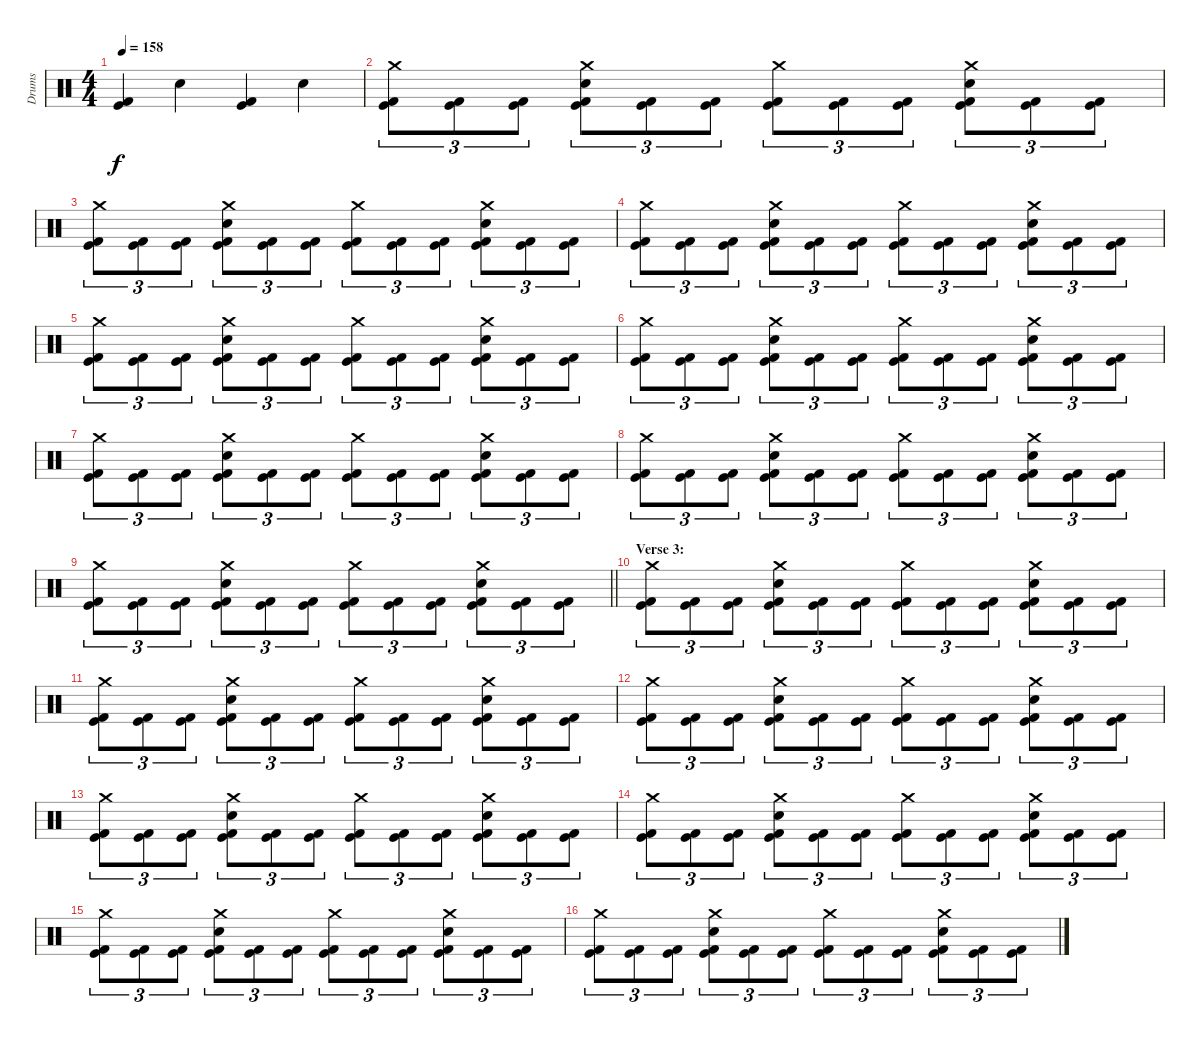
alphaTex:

\track ("Drums" "Drums") {instrument percussion}
\staff {score}
\articulation defaults
\ts (4 4)
\tempo 158
\clef neutral
\ks c
("Kick (hit)" "Kick (hit) 2").4{dy f} "Snare (hit) 2".4 ("Kick (hit)" "Kick (hit) 2").4 "Snare (hit) 2".4 |
("Crash medium (hit)" "Kick (hit)" "Kick (hit) 2").8{tu (3 2)} ("Kick (hit)" "Kick (hit) 2").8{tu (3 2)} ("Kick (hit)" "Kick (hit) 2").8{tu (3 2)} ("Crash medium (hit)" "Snare (hit) 2" "Kick (hit)" "Kick (hit) 2").8{tu (3 2)} ("Kick (hit)" "Kick (hit) 2").8{tu (3 2)} ("Kick (hit)" "Kick (hit) 2").8{tu (3 2)} ("Crash medium (hit)" "Kick (hit)" "Kick (hit) 2").8{tu (3 2)} ("Kick (hit)" "Kick (hit) 2").8{tu (3 2)} ("Kick (hit)" "Kick (hit) 2").8{tu (3 2)} ("Crash medium (hit)" "Snare (hit) 2" "Kick (hit)" "Kick (hit) 2").8{tu (3 2)} ("Kick (hit)" "Kick (hit) 2").8{tu (3 2)} ("Kick (hit)" "Kick (hit) 2").8{tu (3 2)} |
("Crash medium (hit)" "Kick (hit)" "Kick (hit) 2").8{tu (3 2)} ("Kick (hit)" "Kick (hit) 2").8{tu (3 2)} ("Kick (hit)" "Kick (hit) 2").8{tu (3 2)} ("Crash medium (hit)" "Snare (hit) 2" "Kick (hit)" "Kick (hit) 2").8{tu (3 2)} ("Kick (hit)" "Kick (hit) 2").8{tu (3 2)} ("Kick (hit)" "Kick (hit) 2").8{tu (3 2)} ("Crash medium (hit)" "Kick (hit)" "Kick (hit) 2").8{tu (3 2)} ("Kick (hit)" "Kick (hit) 2").8{tu (3 2)} ("Kick (hit)" "Kick (hit) 2").8{tu (3 2)} ("Crash medium (hit)" "Snare (hit) 2" "Kick (hit)" "Kick (hit) 2").8{tu (3 2)} ("Kick (hit)" "Kick (hit) 2").8{tu (3 2)} ("Kick (hit)" "Kick (hit) 2").8{tu (3 2)} |
("Crash medium (hit)" "Kick (hit)" "Kick (hit) 2").8{tu (3 2)} ("Kick (hit)" "Kick (hit) 2").8{tu (3 2)} ("Kick (hit)" "Kick (hit) 2").8{tu (3 2)} ("Crash medium (hit)" "Snare (hit) 2" "Kick (hit)" "Kick (hit) 2").8{tu (3 2)} ("Kick (hit)" "Kick (hit) 2").8{tu (3 2)} ("Kick (hit)" "Kick (hit) 2").8{tu (3 2)} ("Crash medium (hit)" "Kick (hit)" "Kick (hit) 2").8{tu (3 2)} ("Kick (hit)" "Kick (hit) 2").8{tu (3 2)} ("Kick (hit)" "Kick (hit) 2").8{tu (3 2)} ("Crash medium (hit)" "Snare (hit) 2" "Kick (hit)" "Kick (hit) 2").8{tu (3 2)} ("Kick (hit)" "Kick (hit) 2").8{tu (3 2)} ("Kick (hit)" "Kick (hit) 2").8{tu (3 2)} |
("Crash medium (hit)" "Kick (hit)" "Kick (hit) 2").8{tu (3 2)} ("Kick (hit)" "Kick (hit) 2").8{tu (3 2)} ("Kick (hit)" "Kick (hit) 2").8{tu (3 2)} ("Crash medium (hit)" "Snare (hit) 2" "Kick (hit)" "Kick (hit) 2").8{tu (3 2)} ("Kick (hit)" "Kick (hit) 2").8{tu (3 2)} ("Kick (hit)" "Kick (hit) 2").8{tu (3 2)} ("Crash medium (hit)" "Kick (hit)" "Kick (hit) 2").8{tu (3 2)} ("Kick (hit)" "Kick (hit) 2").8{tu (3 2)} ("Kick (hit)" "Kick (hit) 2").8{tu (3 2)} ("Crash medium (hit)" "Snare (hit) 2" "Kick (hit)" "Kick (hit) 2").8{tu (3 2)} ("Kick (hit)" "Kick (hit) 2").8{tu (3 2)} ("Kick (hit)" "Kick (hit) 2").8{tu (3 2)} |
("Crash medium (hit)" "Kick (hit)" "Kick (hit) 2").8{tu (3 2)} ("Kick (hit)" "Kick (hit) 2").8{tu (3 2)} ("Kick (hit)" "Kick (hit) 2").8{tu (3 2)} ("Crash medium (hit)" "Snare (hit) 2" "Kick (hit)" "Kick (hit) 2").8{tu (3 2)} ("Kick (hit)" "Kick (hit) 2").8{tu (3 2)} ("Kick (hit)" "Kick (hit) 2").8{tu (3 2)} ("Crash medium (hit)" "Kick (hit)" "Kick (hit) 2").8{tu (3 2)} ("Kick (hit)" "Kick (hit) 2").8{tu (3 2)} ("Kick (hit)" "Kick (hit) 2").8{tu (3 2)} ("Crash medium (hit)" "Snare (hit) 2" "Kick (hit)" "Kick (hit) 2").8{tu (3 2)} ("Kick (hit)" "Kick (hit) 2").8{tu (3 2)} ("Kick (hit)" "Kick (hit) 2").8{tu (3 2)} |
("Crash medium (hit)" "Kick (hit)" "Kick (hit) 2").8{tu (3 2)} ("Kick (hit)" "Kick (hit) 2").8{tu (3 2)} ("Kick (hit)" "Kick (hit) 2").8{tu (3 2)} ("Crash medium (hit)" "Snare (hit) 2" "Kick (hit)" "Kick (hit) 2").8{tu (3 2)} ("Kick (hit)" "Kick (hit) 2").8{tu (3 2)} ("Kick (hit)" "Kick (hit) 2").8{tu (3 2)} ("Crash medium (hit)" "Kick (hit)" "Kick (hit) 2").8{tu (3 2)} ("Kick (hit)" "Kick (hit) 2").8{tu (3 2)} ("Kick (hit)" "Kick (hit) 2").8{tu (3 2)} ("Crash medium (hit)" "Snare (hit) 2" "Kick (hit)" "Kick (hit) 2").8{tu (3 2)} ("Kick (hit)" "Kick (hit) 2").8{tu (3 2)} ("Kick (hit)" "Kick (hit) 2").8{tu (3 2)} |
("Crash medium (hit)" "Kick (hit)" "Kick (hit) 2").8{tu (3 2)} ("Kick (hit)" "Kick (hit) 2").8{tu (3 2)} ("Kick (hit)" "Kick (hit) 2").8{tu (3 2)} ("Crash medium (hit)" "Snare (hit) 2" "Kick (hit)" "Kick (hit) 2").8{tu (3 2)} ("Kick (hit)" "Kick (hit) 2").8{tu (3 2)} ("Kick (hit)" "Kick (hit) 2").8{tu (3 2)} ("Crash medium (hit)" "Kick (hit)" "Kick (hit) 2").8{tu (3 2)} ("Kick (hit)" "Kick (hit) 2").8{tu (3 2)} ("Kick (hit)" "Kick (hit) 2").8{tu (3 2)} ("Crash medium (hit)" "Snare (hit) 2" "Kick (hit)" "Kick (hit) 2").8{tu (3 2)} ("Kick (hit)" "Kick (hit) 2").8{tu (3 2)} ("Kick (hit)" "Kick (hit) 2").8{tu (3 2)} |
\barLineRight lightlight
("Crash medium (hit)" "Kick (hit)" "Kick (hit) 2").8{tu (3 2)} ("Kick (hit)" "Kick (hit) 2").8{tu (3 2)} ("Kick (hit)" "Kick (hit) 2").8{tu (3 2)} ("Crash medium (hit)" "Snare (hit) 2" "Kick (hit)" "Kick (hit) 2").8{tu (3 2)} ("Kick (hit)" "Kick (hit) 2").8{tu (3 2)} ("Kick (hit)" "Kick (hit) 2").8{tu (3 2)} ("Crash medium (hit)" "Kick (hit)" "Kick (hit) 2").8{tu (3 2)} ("Kick (hit)" "Kick (hit) 2").8{tu (3 2)} ("Kick (hit)" "Kick (hit) 2").8{tu (3 2)} ("Crash medium (hit)" "Snare (hit) 2" "Kick (hit)" "Kick (hit) 2").8{tu (3 2)} ("Kick (hit)" "Kick (hit) 2").8{tu (3 2)} ("Kick (hit)" "Kick (hit) 2").8{tu (3 2)} |
\section ("" "Verse 3:")
("Crash medium (hit)" "Kick (hit)" "Kick (hit) 2").8{tu (3 2)} ("Kick (hit)" "Kick (hit) 2").8{tu (3 2)} ("Kick (hit)" "Kick (hit) 2").8{tu (3 2)} ("Crash medium (hit)" "Snare (hit) 2" "Kick (hit)" "Kick (hit) 2").8{tu (3 2)} ("Kick (hit)" "Kick (hit) 2").8{tu (3 2)} ("Kick (hit)" "Kick (hit) 2").8{tu (3 2)} ("Crash medium (hit)" "Kick (hit)" "Kick (hit) 2").8{tu (3 2)} ("Kick (hit)" "Kick (hit) 2").8{tu (3 2)} ("Kick (hit)" "Kick (hit) 2").8{tu (3 2)} ("Crash medium (hit)" "Snare (hit) 2" "Kick (hit)" "Kick (hit) 2").8{tu (3 2)} ("Kick (hit)" "Kick (hit) 2").8{tu (3 2)} ("Kick (hit)" "Kick (hit) 2").8{tu (3 2)} |
("Crash medium (hit)" "Kick (hit)" "Kick (hit) 2").8{tu (3 2)} ("Kick (hit)" "Kick (hit) 2").8{tu (3 2)} ("Kick (hit)" "Kick (hit) 2").8{tu (3 2)} ("Crash medium (hit)" "Snare (hit) 2" "Kick (hit)" "Kick (hit) 2").8{tu (3 2)} ("Kick (hit)" "Kick (hit) 2").8{tu (3 2)} ("Kick (hit)" "Kick (hit) 2").8{tu (3 2)} ("Crash medium (hit)" "Kick (hit)" "Kick (hit) 2").8{tu (3 2)} ("Kick (hit)" "Kick (hit) 2").8{tu (3 2)} ("Kick (hit)" "Kick (hit) 2").8{tu (3 2)} ("Crash medium (hit)" "Snare (hit) 2" "Kick (hit)" "Kick (hit) 2").8{tu (3 2)} ("Kick (hit)" "Kick (hit) 2").8{tu (3 2)} ("Kick (hit)" "Kick (hit) 2").8{tu (3 2)} |
("Crash medium (hit)" "Kick (hit)" "Kick (hit) 2").8{tu (3 2)} ("Kick (hit)" "Kick (hit) 2").8{tu (3 2)} ("Kick (hit)" "Kick (hit) 2").8{tu (3 2)} ("Crash medium (hit)" "Snare (hit) 2" "Kick (hit)" "Kick (hit) 2").8{tu (3 2)} ("Kick (hit)" "Kick (hit) 2").8{tu (3 2)} ("Kick (hit)" "Kick (hit) 2").8{tu (3 2)} ("Crash medium (hit)" "Kick (hit)" "Kick (hit) 2").8{tu (3 2)} ("Kick (hit)" "Kick (hit) 2").8{tu (3 2)} ("Kick (hit)" "Kick (hit) 2").8{tu (3 2)} ("Crash medium (hit)" "Snare (hit) 2" "Kick (hit)" "Kick (hit) 2").8{tu (3 2)} ("Kick (hit)" "Kick (hit) 2").8{tu (3 2)} ("Kick (hit)" "Kick (hit) 2").8{tu (3 2)} |
("Crash medium (hit)" "Kick (hit)" "Kick (hit) 2").8{tu (3 2)} ("Kick (hit)" "Kick (hit) 2").8{tu (3 2)} ("Kick (hit)" "Kick (hit) 2").8{tu (3 2)} ("Crash medium (hit)" "Snare (hit) 2" "Kick (hit)" "Kick (hit) 2").8{tu (3 2)} ("Kick (hit)" "Kick (hit) 2").8{tu (3 2)} ("Kick (hit)" "Kick (hit) 2").8{tu (3 2)} ("Crash medium (hit)" "Kick (hit)" "Kick (hit) 2").8{tu (3 2)} ("Kick (hit)" "Kick (hit) 2").8{tu (3 2)} ("Kick (hit)" "Kick (hit) 2").8{tu (3 2)} ("Crash medium (hit)" "Snare (hit) 2" "Kick (hit)" "Kick (hit) 2").8{tu (3 2)} ("Kick (hit)" "Kick (hit) 2").8{tu (3 2)} ("Kick (hit)" "Kick (hit) 2").8{tu (3 2)} |
("Crash medium (hit)" "Kick (hit)" "Kick (hit) 2").8{tu (3 2)} ("Kick (hit)" "Kick (hit) 2").8{tu (3 2)} ("Kick (hit)" "Kick (hit) 2").8{tu (3 2)} ("Crash medium (hit)" "Snare (hit) 2" "Kick (hit)" "Kick (hit) 2").8{tu (3 2)} ("Kick (hit)" "Kick (hit) 2").8{tu (3 2)} ("Kick (hit)" "Kick (hit) 2").8{tu (3 2)} ("Crash medium (hit)" "Kick (hit)" "Kick (hit) 2").8{tu (3 2)} ("Kick (hit)" "Kick (hit) 2").8{tu (3 2)} ("Kick (hit)" "Kick (hit) 2").8{tu (3 2)} ("Crash medium (hit)" "Snare (hit) 2" "Kick (hit)" "Kick (hit) 2").8{tu (3 2)} ("Kick (hit)" "Kick (hit) 2").8{tu (3 2)} ("Kick (hit)" "Kick (hit) 2").8{tu (3 2)} |
("Crash medium (hit)" "Kick (hit)" "Kick (hit) 2").8{tu (3 2)} ("Kick (hit)" "Kick (hit) 2").8{tu (3 2)} ("Kick (hit)" "Kick (hit) 2").8{tu (3 2)} ("Crash medium (hit)" "Snare (hit) 2" "Kick (hit)" "Kick (hit) 2").8{tu (3 2)} ("Kick (hit)" "Kick (hit) 2").8{tu (3 2)} ("Kick (hit)" "Kick (hit) 2").8{tu (3 2)} ("Crash medium (hit)" "Kick (hit)" "Kick (hit) 2").8{tu (3 2)} ("Kick (hit)" "Kick (hit) 2").8{tu (3 2)} ("Kick (hit)" "Kick (hit) 2").8{tu (3 2)} ("Crash medium (hit)" "Snare (hit) 2" "Kick (hit)" "Kick (hit) 2").8{tu (3 2)} ("Kick (hit)" "Kick (hit) 2").8{tu (3 2)} ("Kick (hit)" "Kick (hit) 2").8{tu (3 2)} |
("Crash medium (hit)" "Kick (hit)" "Kick (hit) 2").8{tu (3 2)} ("Kick (hit)" "Kick (hit) 2").8{tu (3 2)} ("Kick (hit)" "Kick (hit) 2").8{tu (3 2)} ("Crash medium (hit)" "Snare (hit) 2" "Kick (hit)" "Kick (hit) 2").8{tu (3 2)} ("Kick (hit)" "Kick (hit) 2").8{tu (3 2)} ("Kick (hit)" "Kick (hit) 2").8{tu (3 2)} ("Crash medium (hit)" "Kick (hit)" "Kick (hit) 2").8{tu (3 2)} ("Kick (hit)" "Kick (hit) 2").8{tu (3 2)} ("Kick (hit)" "Kick (hit) 2").8{tu (3 2)} ("Crash medium (hit)" "Snare (hit) 2" "Kick (hit)" "Kick (hit) 2").8{tu (3 2)} ("Kick (hit)" "Kick (hit) 2").8{tu (3 2)} ("Kick (hit)" "Kick (hit) 2").8{tu (3 2)}
